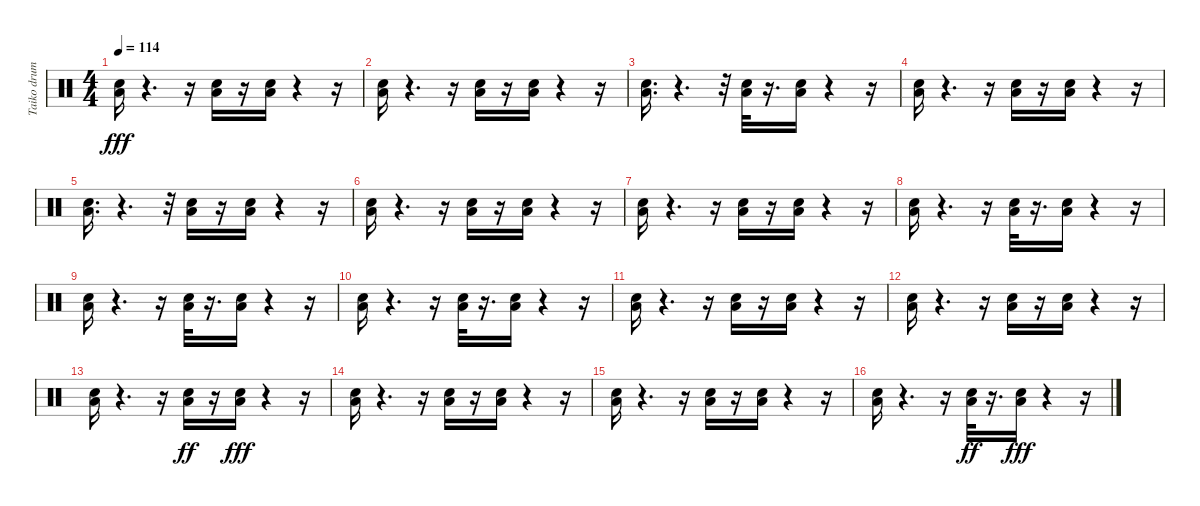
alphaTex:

\track ("Taiko drum" "Taiko drum") {instrument percussion}
\staff {score}
\articulation defaults
\ts (4 4)
\tempo 114
\clef neutral
\ks c
("Low Floor Tom (hit)" "Electric Snare (hit)").16{dy fff} r.4{d} r.16 ("Low Floor Tom (hit)" "Electric Snare (hit)").16 r.16 ("Low Floor Tom (hit)" "Electric Snare (hit)").16 r.4 r.16 |
("Low Floor Tom (hit)" "Electric Snare (hit)").16 r.4{d} r.16 ("Low Floor Tom (hit)" "Electric Snare (hit)").16 r.16 ("Low Floor Tom (hit)" "Electric Snare (hit)").16 r.4 r.16 |
("Low Floor Tom (hit)" "Electric Snare (hit)").16{d} r.4{d} r.32 ("Low Floor Tom (hit)" "Electric Snare (hit)").32 r.16{d} ("Low Floor Tom (hit)" "Electric Snare (hit)").16 r.4 r.16 |
("Low Floor Tom (hit)" "Electric Snare (hit)").16 r.4{d} r.16 ("Low Floor Tom (hit)" "Electric Snare (hit)").16 r.16 ("Low Floor Tom (hit)" "Electric Snare (hit)").16 r.4 r.16 |
("Low Floor Tom (hit)" "Electric Snare (hit)").16{d} r.4{d} r.32 ("Low Floor Tom (hit)" "Electric Snare (hit)").16 r.16 ("Low Floor Tom (hit)" "Electric Snare (hit)").16 r.4 r.16 |
("Low Floor Tom (hit)" "Electric Snare (hit)").16 r.4{d} r.16 ("Low Floor Tom (hit)" "Electric Snare (hit)").16 r.16 ("Low Floor Tom (hit)" "Electric Snare (hit)").16 r.4 r.16 |
("Low Floor Tom (hit)" "Electric Snare (hit)").16 r.4{d} r.16 ("Low Floor Tom (hit)" "Electric Snare (hit)").16 r.16 ("Low Floor Tom (hit)" "Electric Snare (hit)").16 r.4 r.16 |
("Low Floor Tom (hit)" "Electric Snare (hit)").16 r.4{d} r.16 ("Low Floor Tom (hit)" "Electric Snare (hit)").32 r.16{d} ("Low Floor Tom (hit)" "Electric Snare (hit)").16 r.4 r.16 |
("Low Floor Tom (hit)" "Electric Snare (hit)").16 r.4{d} r.16 ("Low Floor Tom (hit)" "Electric Snare (hit)").32 r.16{d} ("Low Floor Tom (hit)" "Electric Snare (hit)").16 r.4 r.16 |
("Low Floor Tom (hit)" "Electric Snare (hit)").16 r.4{d} r.16 ("Low Floor Tom (hit)" "Electric Snare (hit)").32 r.16{d} ("Low Floor Tom (hit)" "Electric Snare (hit)").16 r.4 r.16 |
("Low Floor Tom (hit)" "Electric Snare (hit)").16 r.4{d} r.16 ("Low Floor Tom (hit)" "Electric Snare (hit)").16 r.16 ("Low Floor Tom (hit)" "Electric Snare (hit)").16 r.4 r.16 |
("Low Floor Tom (hit)" "Electric Snare (hit)").16 r.4{d} r.16 ("Low Floor Tom (hit)" "Electric Snare (hit)").16 r.16 ("Low Floor Tom (hit)" "Electric Snare (hit)").16 r.4 r.16 |
("Low Floor Tom (hit)" "Electric Snare (hit)").16 r.4{d} r.16 ("Low Floor Tom (hit)" "Electric Snare (hit)").16{dy ff} r.16 ("Low Floor Tom (hit)" "Electric Snare (hit)").16{dy fff} r.4 r.16 |
("Low Floor Tom (hit)" "Electric Snare (hit)").16 r.4{d} r.16 ("Low Floor Tom (hit)" "Electric Snare (hit)").16 r.16 ("Low Floor Tom (hit)" "Electric Snare (hit)").16 r.4 r.16 |
("Low Floor Tom (hit)" "Electric Snare (hit)").16 r.4{d} r.16 ("Low Floor Tom (hit)" "Electric Snare (hit)").16 r.16 ("Low Floor Tom (hit)" "Electric Snare (hit)").16 r.4 r.16 |
("Low Floor Tom (hit)" "Electric Snare (hit)").16 r.4{d} r.16 ("Low Floor Tom (hit)" "Electric Snare (hit)").32{dy ff} r.16{d} ("Low Floor Tom (hit)" "Electric Snare (hit)").16{dy fff} r.4 r.16
